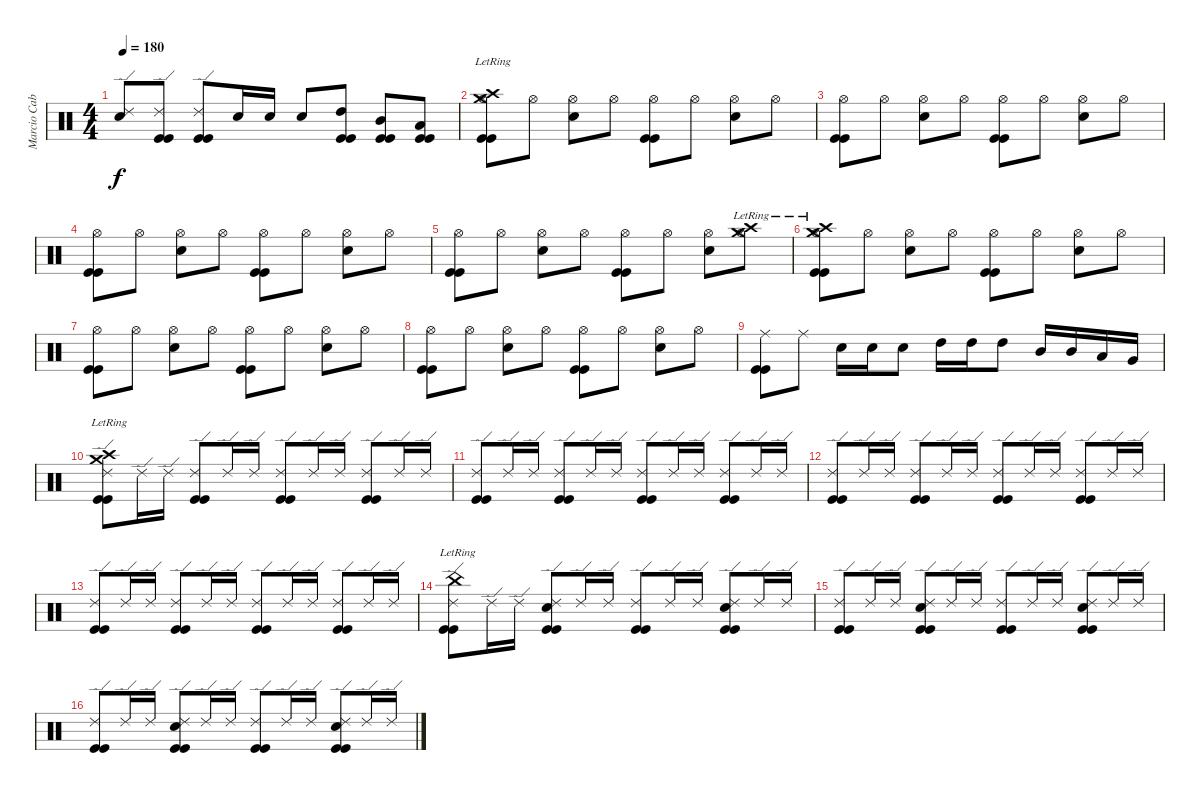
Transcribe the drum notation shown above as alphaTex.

\track ("Marcio Cabrita" "Marcio Cab") {instrument percussion}
\staff {score}
\articulation defaults
\ts (4 4)
\tempo 180
\clef neutral
\ks c
("Snare (hit) 2" "Ride (edge) 2").8{dy f} ("Ride (edge) 2" "Kick (hit)" "Kick (hit)").8 ("Ride (edge) 2" "Kick (hit)" "Kick (hit)").8 "Electric Snare (hit)".16 "Electric Snare (hit)".16 "Electric Snare (hit)".8 ("High Tom (hit)" "Kick (hit)" "Kick (hit)").8 ("Mid Tom (hit)" "Kick (hit)" "Kick (hit)").8 ("Low Tom (hit)" "Kick (hit)" "Kick (hit)").8 |
("Crash high (hit)"{lr} "Crash medium (hit)"{lr} "Hi-Hat (open)" "Kick (hit)" "Kick (hit)").8 "Hi-Hat (open)".8 ("Snare (hit) 2" "Hi-Hat (open)").8 "Hi-Hat (open)".8 ("Hi-Hat (open)" "Kick (hit)" "Kick (hit)").8 "Hi-Hat (open)".8 ("Snare (hit) 2" "Hi-Hat (open)").8 "Hi-Hat (open)".8 |
("Hi-Hat (open)" "Kick (hit)" "Kick (hit)").8 "Hi-Hat (open)".8 ("Snare (hit) 2" "Hi-Hat (open)").8 "Hi-Hat (open)".8 ("Hi-Hat (open)" "Kick (hit)" "Kick (hit)").8 "Hi-Hat (open)".8 ("Snare (hit) 2" "Hi-Hat (open)").8 "Hi-Hat (open)".8 |
("Hi-Hat (open)" "Kick (hit)" "Kick (hit)").8 "Hi-Hat (open)".8 ("Snare (hit) 2" "Hi-Hat (open)").8 "Hi-Hat (open)".8 ("Hi-Hat (open)" "Kick (hit)" "Kick (hit)").8 "Hi-Hat (open)".8 ("Snare (hit) 2" "Hi-Hat (open)").8 "Hi-Hat (open)".8 |
("Hi-Hat (open)" "Kick (hit)" "Kick (hit)").8 "Hi-Hat (open)".8 ("Snare (hit) 2" "Hi-Hat (open)").8 "Hi-Hat (open)".8 ("Hi-Hat (open)" "Kick (hit)" "Kick (hit)").8 "Hi-Hat (open)".8 ("Snare (hit) 2" "Hi-Hat (open)").8 ("Crash high (hit)"{lr} "Crash medium (hit)"{lr} "Hi-Hat (open)").8 |
("Crash high (hit)"{lr} "Crash medium (hit)"{lr} "Hi-Hat (open)" "Kick (hit)" "Kick (hit)").8 "Hi-Hat (open)".8 ("Snare (hit) 2" "Hi-Hat (open)").8 "Hi-Hat (open)".8 ("Hi-Hat (open)" "Kick (hit)" "Kick (hit)").8 "Hi-Hat (open)".8 ("Snare (hit) 2" "Hi-Hat (open)").8 "Hi-Hat (open)".8 |
("Hi-Hat (open)" "Kick (hit)" "Kick (hit)").8 "Hi-Hat (open)".8 ("Snare (hit) 2" "Hi-Hat (open)").8 "Hi-Hat (open)".8 ("Hi-Hat (open)" "Kick (hit)" "Kick (hit)").8 "Hi-Hat (open)".8 ("Snare (hit) 2" "Hi-Hat (open)").8 "Hi-Hat (open)".8 |
("Hi-Hat (open)" "Kick (hit)" "Kick (hit)").8 "Hi-Hat (open)".8 ("Snare (hit) 2" "Hi-Hat (open)").8 "Hi-Hat (open)".8 ("Hi-Hat (open)" "Kick (hit)" "Kick (hit)").8 "Hi-Hat (open)".8 ("Snare (hit) 2" "Hi-Hat (open)").8 "Hi-Hat (open)".8 |
("Ride (middle)" "Kick (hit)" "Kick (hit)").8 "Ride (middle)".8 "Electric Snare (hit)".16 "Electric Snare (hit)".16 "Electric Snare (hit)".8 "High Tom (hit)".16 "High Tom (hit)".16 "High Tom (hit)".8 "Mid Tom (hit)".16 "Mid Tom (hit)".16 "Low Tom (hit)".16 "Very Low Tom (hit)".16 |
("Crash high (hit)"{lr} "Crash medium (hit)"{lr} "Ride (edge) 2" "Kick (hit)" "Kick (hit)").8 "Ride (edge) 2".16 "Ride (edge) 2".16 ("Ride (edge) 2" "Kick (hit)" "Kick (hit)").8 "Ride (edge) 2".16 "Ride (edge) 2".16 ("Ride (edge) 2" "Kick (hit)" "Kick (hit)").8 "Ride (edge) 2".16 "Ride (edge) 2".16 ("Ride (edge) 2" "Kick (hit)" "Kick (hit)").8 "Ride (edge) 2".16 "Ride (edge) 2".16 |
("Ride (edge) 2" "Kick (hit)" "Kick (hit)").8 "Ride (edge) 2".16 "Ride (edge) 2".16 ("Ride (edge) 2" "Kick (hit)" "Kick (hit)").8 "Ride (edge) 2".16 "Ride (edge) 2".16 ("Ride (edge) 2" "Kick (hit)" "Kick (hit)").8 "Ride (edge) 2".16 "Ride (edge) 2".16 ("Ride (edge) 2" "Kick (hit)" "Kick (hit)").8 "Ride (edge) 2".16 "Ride (edge) 2".16 |
("Ride (edge) 2" "Kick (hit)" "Kick (hit)").8 "Ride (edge) 2".16 "Ride (edge) 2".16 ("Ride (edge) 2" "Kick (hit)" "Kick (hit)").8 "Ride (edge) 2".16 "Ride (edge) 2".16 ("Ride (edge) 2" "Kick (hit)" "Kick (hit)").8 "Ride (edge) 2".16 "Ride (edge) 2".16 ("Ride (edge) 2" "Kick (hit)" "Kick (hit)").8 "Ride (edge) 2".16 "Ride (edge) 2".16 |
("Ride (edge) 2" "Kick (hit)" "Kick (hit)").8 "Ride (edge) 2".16 "Ride (edge) 2".16 ("Ride (edge) 2" "Kick (hit)" "Kick (hit)").8 "Ride (edge) 2".16 "Ride (edge) 2".16 ("Ride (edge) 2" "Kick (hit)" "Kick (hit)").8 "Ride (edge) 2".16 "Ride (edge) 2".16 ("Ride (edge) 2" "Kick (hit)" "Kick (hit)").8 "Ride (edge) 2".16 "Ride (edge) 2".16 |
("China (hit)"{lr} "Ride (edge) 2" "Kick (hit)" "Kick (hit)").8 "Ride (edge) 2".16 "Ride (edge) 2".16 ("Snare (hit) 2" "Ride (edge) 2" "Kick (hit)" "Kick (hit)").8 "Ride (edge) 2".16 "Ride (edge) 2".16 ("Ride (edge) 2" "Kick (hit)" "Kick (hit)").8 "Ride (edge) 2".16 "Ride (edge) 2".16 ("Snare (hit) 2" "Ride (edge) 2" "Kick (hit)" "Kick (hit)").8 "Ride (edge) 2".16 "Ride (edge) 2".16 |
("Ride (edge) 2" "Kick (hit)" "Kick (hit)").8 "Ride (edge) 2".16 "Ride (edge) 2".16 ("Snare (hit) 2" "Ride (edge) 2" "Kick (hit)" "Kick (hit)").8 "Ride (edge) 2".16 "Ride (edge) 2".16 ("Ride (edge) 2" "Kick (hit)" "Kick (hit)").8 "Ride (edge) 2".16 "Ride (edge) 2".16 ("Snare (hit) 2" "Ride (edge) 2" "Kick (hit)" "Kick (hit)").8 "Ride (edge) 2".16 "Ride (edge) 2".16 |
("Ride (edge) 2" "Kick (hit)" "Kick (hit)").8 "Ride (edge) 2".16 "Ride (edge) 2".16 ("Snare (hit) 2" "Ride (edge) 2" "Kick (hit)" "Kick (hit)").8 "Ride (edge) 2".16 "Ride (edge) 2".16 ("Ride (edge) 2" "Kick (hit)" "Kick (hit)").8 "Ride (edge) 2".16 "Ride (edge) 2".16 ("Snare (hit) 2" "Ride (edge) 2" "Kick (hit)" "Kick (hit)").8 "Ride (edge) 2".16 "Ride (edge) 2".16
